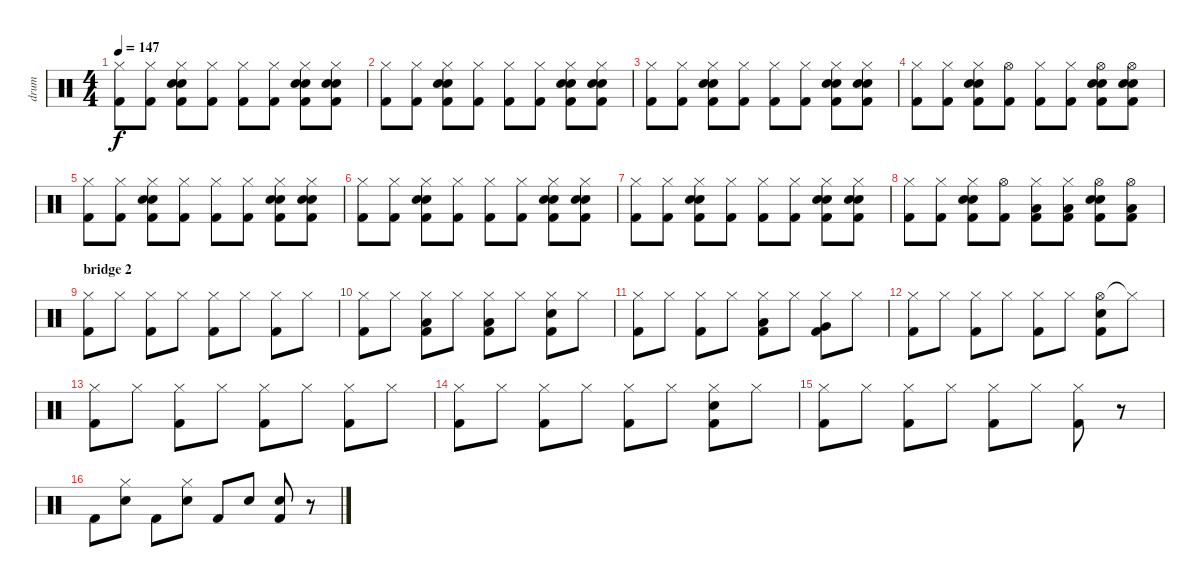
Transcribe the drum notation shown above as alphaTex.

\track ("drum" "drum") {instrument percussion}
\staff {score}
\articulation defaults
\ts (4 4)
\tempo 147
\clef neutral
\ks c
("Hi-Hat (closed)" "Kick (hit) 2").8{dy f} ("Hi-Hat (closed)" "Kick (hit) 2").8 ("Hi-Hat (closed)" "Hand Clap (hit)" "Electric Snare (hit)" "Kick (hit) 2").8 ("Hi-Hat (closed)" "Kick (hit) 2").8 ("Hi-Hat (closed)" "Kick (hit) 2").8 ("Hi-Hat (closed)" "Kick (hit) 2").8 ("Hi-Hat (closed)" "Hand Clap (hit)" "Electric Snare (hit)" "Kick (hit) 2").8 ("Hi-Hat (closed)" "Hand Clap (hit)" "Electric Snare (hit)" "Kick (hit) 2").8 |
("Hi-Hat (closed)" "Kick (hit) 2").8 ("Hi-Hat (closed)" "Kick (hit) 2").8 ("Hi-Hat (closed)" "Hand Clap (hit)" "Electric Snare (hit)" "Kick (hit) 2").8 ("Hi-Hat (closed)" "Kick (hit) 2").8 ("Hi-Hat (closed)" "Kick (hit) 2").8 ("Hi-Hat (closed)" "Kick (hit) 2").8 ("Hi-Hat (closed)" "Hand Clap (hit)" "Electric Snare (hit)" "Kick (hit) 2").8 ("Hi-Hat (closed)" "Hand Clap (hit)" "Electric Snare (hit)" "Kick (hit) 2").8 |
("Hi-Hat (closed)" "Kick (hit) 2").8 ("Hi-Hat (closed)" "Kick (hit) 2").8 ("Hi-Hat (closed)" "Hand Clap (hit)" "Electric Snare (hit)" "Kick (hit) 2").8 ("Hi-Hat (closed)" "Kick (hit) 2").8 ("Hi-Hat (closed)" "Kick (hit) 2").8 ("Hi-Hat (closed)" "Kick (hit) 2").8 ("Hi-Hat (closed)" "Hand Clap (hit)" "Electric Snare (hit)" "Kick (hit) 2").8 ("Hi-Hat (closed)" "Hand Clap (hit)" "Electric Snare (hit)" "Kick (hit) 2").8 |
("Hi-Hat (closed)" "Kick (hit) 2").8 ("Hi-Hat (closed)" "Kick (hit) 2").8 ("Hi-Hat (closed)" "Hand Clap (hit)" "Electric Snare (hit)" "Kick (hit) 2").8 ("Hi-Hat (open)" "Kick (hit) 2").8 ("Hi-Hat (closed)" "Kick (hit) 2").8 ("Hi-Hat (closed)" "Kick (hit) 2").8 ("Hi-Hat (open)" "Hand Clap (hit)" "Electric Snare (hit)" "Kick (hit) 2").8 ("Hi-Hat (open)" "Hand Clap (hit)" "Electric Snare (hit)" "Kick (hit) 2").8 |
("Hi-Hat (closed)" "Kick (hit) 2").8 ("Hi-Hat (closed)" "Kick (hit) 2").8 ("Hi-Hat (closed)" "Hand Clap (hit)" "Electric Snare (hit)" "Kick (hit) 2").8 ("Hi-Hat (closed)" "Kick (hit) 2").8 ("Hi-Hat (closed)" "Kick (hit) 2").8 ("Hi-Hat (closed)" "Kick (hit) 2").8 ("Hi-Hat (closed)" "Hand Clap (hit)" "Electric Snare (hit)" "Kick (hit) 2").8 ("Hi-Hat (closed)" "Hand Clap (hit)" "Electric Snare (hit)" "Kick (hit) 2").8 |
("Hi-Hat (closed)" "Kick (hit) 2").8 ("Hi-Hat (closed)" "Kick (hit) 2").8 ("Hi-Hat (closed)" "Hand Clap (hit)" "Electric Snare (hit)" "Kick (hit) 2").8 ("Hi-Hat (closed)" "Kick (hit) 2").8 ("Hi-Hat (closed)" "Kick (hit) 2").8 ("Hi-Hat (closed)" "Kick (hit) 2").8 ("Hi-Hat (closed)" "Hand Clap (hit)" "Electric Snare (hit)" "Kick (hit) 2").8 ("Hi-Hat (closed)" "Hand Clap (hit)" "Electric Snare (hit)" "Kick (hit) 2").8 |
("Hi-Hat (closed)" "Kick (hit) 2").8 ("Hi-Hat (closed)" "Kick (hit) 2").8 ("Hi-Hat (closed)" "Hand Clap (hit)" "Electric Snare (hit)" "Kick (hit) 2").8 ("Hi-Hat (closed)" "Kick (hit) 2").8 ("Hi-Hat (closed)" "Kick (hit) 2").8 ("Hi-Hat (closed)" "Kick (hit) 2").8 ("Hi-Hat (closed)" "Hand Clap (hit)" "Electric Snare (hit)" "Kick (hit) 2").8 ("Hi-Hat (closed)" "Hand Clap (hit)" "Electric Snare (hit)" "Kick (hit) 2").8 |
("Hi-Hat (closed)" "Kick (hit) 2").8 ("Hi-Hat (closed)" "Kick (hit) 2").8 ("Hi-Hat (closed)" "Hand Clap (hit)" "Electric Snare (hit)" "Kick (hit) 2").8 ("Hi-Hat (open)" "Kick (hit) 2").8 ("Hi-Hat (closed)" "Low Floor Tom (hit)" "Kick (hit) 2").8 ("Hi-Hat (closed)" "Low Floor Tom (hit)" "Kick (hit) 2").8 ("Hi-Hat (open)" "Hand Clap (hit)" "Electric Snare (hit)" "Kick (hit) 2").8 ("Hi-Hat (open)" "Low Floor Tom (hit)" "Kick (hit) 2").8 |
\section ("" "bridge 2")
("Hi-Hat (closed)" "Kick (hit) 2").8 "Hi-Hat (closed)".8 ("Hi-Hat (closed)" "Kick (hit) 2").8 "Hi-Hat (closed)".8 ("Hi-Hat (closed)" "Kick (hit) 2").8 "Hi-Hat (closed)".8 ("Hi-Hat (closed)" "Kick (hit) 2").8 "Hi-Hat (closed)".8 |
("Hi-Hat (closed)" "Kick (hit) 2").8 "Hi-Hat (closed)".8 ("Hi-Hat (closed)" "Low Floor Tom (hit)" "Kick (hit) 2").8 "Hi-Hat (closed)".8 ("Hi-Hat (closed)" "Low Floor Tom (hit)" "Kick (hit) 2").8 "Hi-Hat (closed)".8 ("Hi-Hat (closed)" "Electric Snare (hit)" "Kick (hit) 2").8 "Hi-Hat (closed)".8 |
("Hi-Hat (closed)" "Kick (hit) 2").8 "Hi-Hat (closed)".8 ("Hi-Hat (closed)" "Kick (hit) 2").8 "Hi-Hat (closed)".8 ("Hi-Hat (closed)" "Low Floor Tom (hit)" "Kick (hit) 2").8 "Hi-Hat (closed)".8 ("Hi-Hat (closed)" "Very Low Tom (hit)" "Kick (hit) 2").8 "Hi-Hat (closed)".8 |
("Hi-Hat (closed)" "Kick (hit) 2").8 "Hi-Hat (closed)".8 ("Hi-Hat (closed)" "Kick (hit) 2").8 "Hi-Hat (closed)".8 ("Hi-Hat (closed)" "Kick (hit) 2").8 "Hi-Hat (closed)".8 ("Hi-Hat (open)" "Electric Snare (hit)" "Kick (hit) 2").8 "Hi-Hat (closed)"{t}.8 |
("Hi-Hat (closed)" "Kick (hit) 2").8 "Hi-Hat (closed)".8 ("Hi-Hat (closed)" "Kick (hit) 2").8 "Hi-Hat (closed)".8 ("Hi-Hat (closed)" "Kick (hit) 2").8 "Hi-Hat (closed)".8 ("Hi-Hat (closed)" "Kick (hit) 2").8 "Hi-Hat (closed)".8 |
("Hi-Hat (closed)" "Kick (hit) 2").8 "Hi-Hat (closed)".8 ("Hi-Hat (closed)" "Kick (hit) 2").8 "Hi-Hat (closed)".8 ("Hi-Hat (closed)" "Kick (hit) 2").8 "Hi-Hat (closed)".8 ("Hi-Hat (closed)" "Electric Snare (hit)" "Kick (hit) 2").8 "Hi-Hat (closed)".8 |
("Hi-Hat (closed)" "Kick (hit) 2").8 "Hi-Hat (closed)".8 ("Hi-Hat (closed)" "Kick (hit) 2").8 "Hi-Hat (closed)".8 ("Hi-Hat (closed)" "Kick (hit) 2").8 "Hi-Hat (closed)".8 ("Hi-Hat (closed)" "Kick (hit) 2").8 r.8 |
"Kick (hit) 2".8 ("Hi-Hat (closed)" "Electric Snare (hit)").8 "Kick (hit) 2".8 ("Hi-Hat (closed)" "Electric Snare (hit)").8 "Kick (hit) 2".8 "Electric Snare (hit)".8 ("Hand Clap (hit)" "Kick (hit) 2").8 r.8
